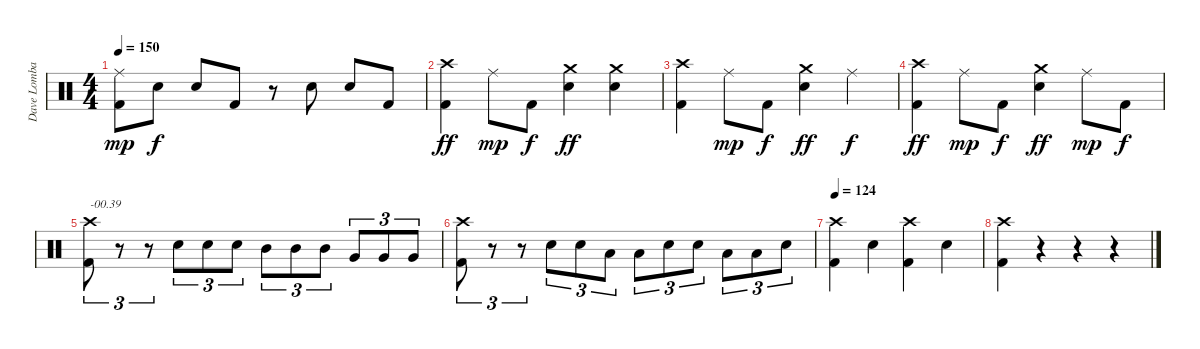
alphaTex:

\track ("Dave Lombardo (Drums)" "Dave Lomba") {instrument percussion}
\staff {score}
\articulation defaults
\ts (4 4)
\tempo 150
\clef neutral
\ks c
("Ride (middle)" "Kick (hit) 2").8{dy mp} "Electric Snare (hit)".8{dy f} "Electric Snare (hit)".8 "Kick (hit) 2".8 r.8 "Electric Snare (hit)".8 "Electric Snare (hit)".8 "Kick (hit) 2".8 |
("Crash high (hit)" "Kick (hit) 2").4{dy ff} "Ride (middle)".8{dy mp} "Kick (hit) 2".8{dy f} ("Crash medium (hit)" "Electric Snare (hit)").4{dy ff} ("Crash medium (hit)" "Electric Snare (hit)").4 |
("Crash high (hit)" "Kick (hit) 2").4 "Ride (middle)".8{dy mp} "Kick (hit) 2".8{dy f} ("Crash medium (hit)" "Electric Snare (hit)").4{dy ff} "Ride (middle)".4{dy f} |
("Crash high (hit)" "Kick (hit) 2").4{dy ff} "Ride (middle)".8{dy mp} "Kick (hit) 2".8{dy f} ("Crash medium (hit)" "Electric Snare (hit)").4{dy ff} "Ride (middle)".8{dy mp} "Kick (hit) 2".8{dy f} |
("Crash high (hit)" "Kick (hit) 2").8{tu (3 2) txt "-00.39"} r.8{tu (3 2)} r.8{tu (3 2)} "Electric Snare (hit)".8{tu (3 2)} "Electric Snare (hit)".8{tu (3 2)} "Electric Snare (hit)".8{tu (3 2)} "Mid Tom (hit)".8{tu (3 2)} "Mid Tom (hit)".8{tu (3 2)} "Mid Tom (hit)".8{tu (3 2)} "Very Low Tom (hit)".8{tu (3 2)} "Very Low Tom (hit)".8{tu (3 2)} "Very Low Tom (hit)".8{tu (3 2)} |
("Crash high (hit)" "Kick (hit) 2").8{tu (3 2)} r.8{tu (3 2)} r.8{tu (3 2)} "Electric Snare (hit)".8{tu (3 2)} "Electric Snare (hit)".8{tu (3 2)} "Low Tom (hit)".8{tu (3 2)} "Low Tom (hit)".8{tu (3 2)} "Electric Snare (hit)".8{tu (3 2)} "Electric Snare (hit)".8{tu (3 2)} "Low Tom (hit)".8{tu (3 2)} "Low Tom (hit)".8{tu (3 2)} "Electric Snare (hit)".8{tu (3 2)} |
\tempo 124
("Crash high (hit)" "Kick (hit) 2").4 "Electric Snare (hit)".4 ("Crash high (hit)" "Kick (hit) 2").4 "Electric Snare (hit)".4 |
("Crash high (hit)" "Kick (hit) 2").4 r.4 r.4 r.4
